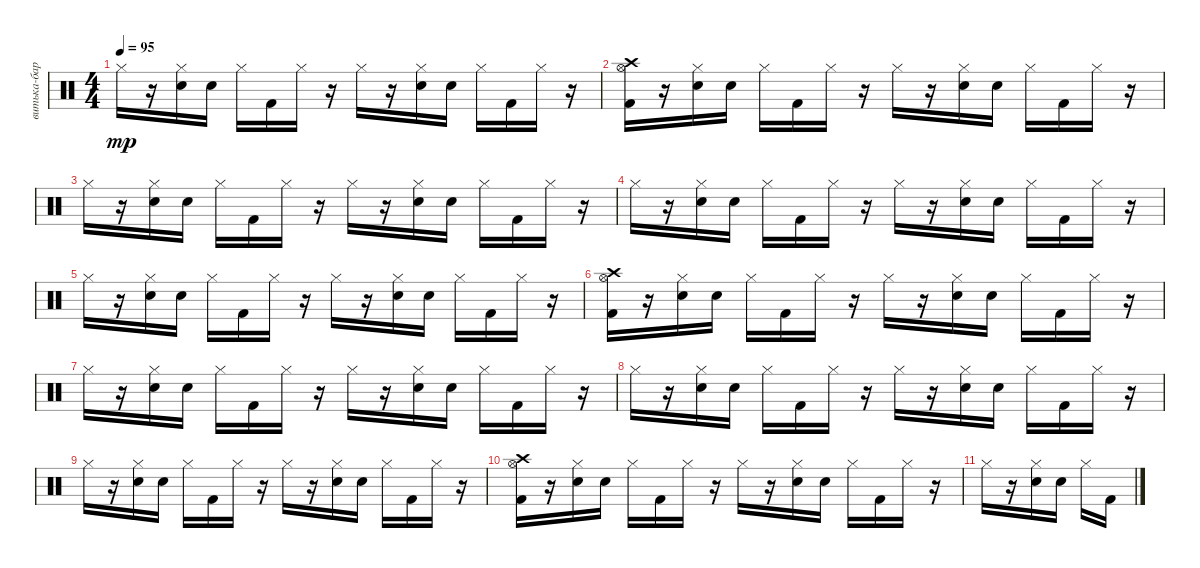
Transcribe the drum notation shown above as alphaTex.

\track ("витька-барабанит" "витька-бар") {instrument percussion}
\staff {score}
\articulation defaults
\ts (4 4)
\tempo 95
\clef neutral
\ks c "Hi-Hat (closed)".16{dy mp}
r.16 ("Snare (hit) 2" "Hi-Hat (closed)").16 "Snare (hit) 2".16 "Hi-Hat (closed)".16 "Kick (hit) 2".16 "Hi-Hat (closed)".16 r.16 "Hi-Hat (closed)".16 r.16 ("Snare (hit) 2" "Hi-Hat (closed)").16 "Snare (hit) 2".16 "Hi-Hat (closed)".16 "Kick (hit) 2".16 "Hi-Hat (closed)".16 r.16 |
("Kick (hit) 2" "Crash high (hit)" "Hi-Hat (open)").16 r.16 ("Snare (hit) 2" "Hi-Hat (closed)").16 "Snare (hit) 2".16 "Hi-Hat (closed)".16 "Kick (hit) 2".16 "Hi-Hat (closed)".16 r.16 "Hi-Hat (closed)".16 r.16 ("Snare (hit) 2" "Hi-Hat (closed)").16 "Snare (hit) 2".16 "Hi-Hat (closed)".16 "Kick (hit) 2".16 "Hi-Hat (closed)".16 r.16 |
"Hi-Hat (closed)".16 r.16 ("Snare (hit) 2" "Hi-Hat (closed)").16 "Snare (hit) 2".16 "Hi-Hat (closed)".16 "Kick (hit) 2".16 "Hi-Hat (closed)".16 r.16 "Hi-Hat (closed)".16 r.16 ("Snare (hit) 2" "Hi-Hat (closed)").16 "Snare (hit) 2".16 "Hi-Hat (closed)".16 "Kick (hit) 2".16 "Hi-Hat (closed)".16 r.16 |
"Hi-Hat (closed)".16 r.16 ("Snare (hit) 2" "Hi-Hat (closed)").16 "Snare (hit) 2".16 "Hi-Hat (closed)".16 "Kick (hit) 2".16 "Hi-Hat (closed)".16 r.16 "Hi-Hat (closed)".16 r.16 ("Snare (hit) 2" "Hi-Hat (closed)").16 "Snare (hit) 2".16 "Hi-Hat (closed)".16 "Kick (hit) 2".16 "Hi-Hat (closed)".16 r.16 |
"Hi-Hat (closed)".16 r.16 ("Snare (hit) 2" "Hi-Hat (closed)").16 "Snare (hit) 2".16 "Hi-Hat (closed)".16 "Kick (hit) 2".16 "Hi-Hat (closed)".16 r.16 "Hi-Hat (closed)".16 r.16 ("Snare (hit) 2" "Hi-Hat (closed)").16 "Snare (hit) 2".16 "Hi-Hat (closed)".16 "Kick (hit) 2".16 "Hi-Hat (closed)".16 r.16 |
("Kick (hit) 2" "Crash high (hit)" "Hi-Hat (open)").16 r.16 ("Snare (hit) 2" "Hi-Hat (closed)").16 "Snare (hit) 2".16 "Hi-Hat (closed)".16 "Kick (hit) 2".16 "Hi-Hat (closed)".16 r.16 "Hi-Hat (closed)".16 r.16 ("Snare (hit) 2" "Hi-Hat (closed)").16 "Snare (hit) 2".16 "Hi-Hat (closed)".16 "Kick (hit) 2".16 "Hi-Hat (closed)".16 r.16 |
"Hi-Hat (closed)".16 r.16 ("Snare (hit) 2" "Hi-Hat (closed)").16 "Snare (hit) 2".16 "Hi-Hat (closed)".16 "Kick (hit) 2".16 "Hi-Hat (closed)".16 r.16 "Hi-Hat (closed)".16 r.16 ("Snare (hit) 2" "Hi-Hat (closed)").16 "Snare (hit) 2".16 "Hi-Hat (closed)".16 "Kick (hit) 2".16 "Hi-Hat (closed)".16 r.16 |
"Hi-Hat (closed)".16 r.16 ("Snare (hit) 2" "Hi-Hat (closed)").16 "Snare (hit) 2".16 "Hi-Hat (closed)".16 "Kick (hit) 2".16 "Hi-Hat (closed)".16 r.16 "Hi-Hat (closed)".16 r.16 ("Snare (hit) 2" "Hi-Hat (closed)").16 "Snare (hit) 2".16 "Hi-Hat (closed)".16 "Kick (hit) 2".16 "Hi-Hat (closed)".16 r.16 |
"Hi-Hat (closed)".16 r.16 ("Snare (hit) 2" "Hi-Hat (closed)").16 "Snare (hit) 2".16 "Hi-Hat (closed)".16 "Kick (hit) 2".16 "Hi-Hat (closed)".16 r.16 "Hi-Hat (closed)".16 r.16 ("Snare (hit) 2" "Hi-Hat (closed)").16 "Snare (hit) 2".16 "Hi-Hat (closed)".16 "Kick (hit) 2".16 "Hi-Hat (closed)".16 r.16 |
("Kick (hit) 2" "Crash high (hit)" "Hi-Hat (open)").16 r.16 ("Snare (hit) 2" "Hi-Hat (closed)").16 "Snare (hit) 2".16 "Hi-Hat (closed)".16 "Kick (hit) 2".16 "Hi-Hat (closed)".16 r.16 "Hi-Hat (closed)".16 r.16 ("Snare (hit) 2" "Hi-Hat (closed)").16 "Snare (hit) 2".16 "Hi-Hat (closed)".16 "Kick (hit) 2".16 "Hi-Hat (closed)".16 r.16 |
"Hi-Hat (closed)".16 r.16 ("Snare (hit) 2" "Hi-Hat (closed)").16 "Snare (hit) 2".16 "Hi-Hat (closed)".16 "Kick (hit) 2".16
